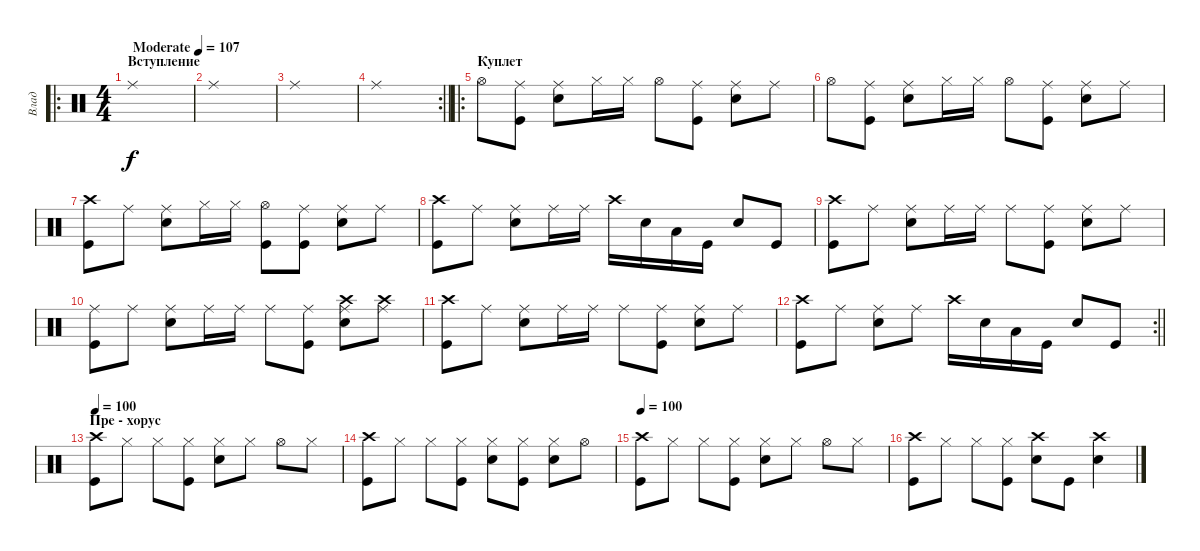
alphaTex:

\track ("Влад" "Влад") {instrument percussion}
\staff {score}
\articulation defaults
\ro
\ts (4 4)
\section ("" "Вступление")
\tempo (107 "Moderate")
\clef neutral
\ks c "Ride (middle)".1{dy f}
|
"Ride (middle)".1 |
"Ride (middle)".1 |
\rc 2
\barLineRight lightlight "Ride (middle)".1
|
\ro
\section ("" "Куплет")
"Hi-Hat (open)".8 ("Ride (middle)" "Kick (hit)").8 ("Ride (middle)" "Snare (hit) 2").8 "Hi-Hat (closed)".16 "Hi-Hat (closed)".16 "Hi-Hat (open)".8 ("Ride (middle)" "Kick (hit)").8 ("Ride (middle)" "Snare (hit) 2").8 "Ride (middle)".8 |
"Hi-Hat (open)".8 ("Ride (middle)" "Kick (hit)").8 ("Ride (middle)" "Snare (hit) 2").8 "Hi-Hat (closed)".16 "Hi-Hat (closed)".16 "Hi-Hat (open)".8 ("Ride (middle)" "Kick (hit)").8 ("Ride (middle)" "Snare (hit) 2").8 "Ride (middle)".8 |
("Crash high (hit)" "Kick (hit)").8 "Ride (middle)".8 ("Ride (middle)" "Snare (hit) 2").8 "Hi-Hat (closed)".16 "Hi-Hat (closed)".16 ("Hi-Hat (open)" "Kick (hit)").8 ("Ride (middle)" "Kick (hit)").8 ("Ride (middle)" "Snare (hit) 2").8 "Ride (middle)".8 |
("Crash high (hit)" "Kick (hit)").8 "Ride (middle)".8 ("Ride (middle)" "Snare (hit) 2").8 "Ride (middle)".16 "Ride (middle)".16 "Crash high (hit)".16 "Snare (hit) 2".16 "Low Tom (hit)".16 "Kick (hit)".16 "Snare (hit) 2".8 "Kick (hit)".8 |
("Crash high (hit)" "Kick (hit)").8 "Ride (middle)".8 ("Ride (middle)" "Snare (hit) 2").8 "Ride (middle)".16 "Ride (middle)".16 "Ride (middle)".8 ("Ride (middle)" "Kick (hit)").8 ("Ride (middle)" "Snare (hit) 2").8 "Ride (middle)".8 |
("Ride (middle)" "Kick (hit)").8 "Ride (middle)".8 ("Ride (middle)" "Snare (hit) 2").8 "Ride (middle)".16 "Ride (middle)".16 "Ride (middle)".8 ("Ride (middle)" "Kick (hit)").8 ("Ride (middle)" "Crash high (hit)" "Snare (hit) 2").8 ("Ride (middle)" "Crash high (hit)").8 |
("Crash high (hit)" "Kick (hit)").8 "Ride (middle)".8 ("Ride (middle)" "Snare (hit) 2").8 "Ride (middle)".16 "Ride (middle)".16 "Ride (middle)".8 ("Ride (middle)" "Kick (hit)").8 ("Ride (middle)" "Snare (hit) 2").8 "Ride (middle)".8 |
\rc 2
\barLineRight lightlight
("Crash high (hit)" "Kick (hit)").8 "Ride (middle)".8 ("Ride (middle)" "Snare (hit) 2").8 "Ride (middle)".8 "Crash high (hit)".16 "Snare (hit) 2".16 "Low Floor Tom (hit)".16 "Kick (hit)".16 "Snare (hit) 2".8 "Kick (hit)".8 |
\section ("" "Пре - хорус")
\tempo 100
("Crash high (hit)" "Kick (hit)").8 "Hi-Hat (closed)".8 "Hi-Hat (closed)".8 ("Hi-Hat (closed)" "Kick (hit)").8 ("Hi-Hat (closed)" "Snare (hit) 2").8 "Hi-Hat (closed)".8 "Hi-Hat (open)".8 "Hi-Hat (closed)".8 |
("Crash high (hit)" "Kick (hit)").8 "Hi-Hat (closed)".8 "Hi-Hat (closed)".8 ("Hi-Hat (closed)" "Kick (hit)").8 ("Hi-Hat (closed)" "Snare (hit) 2").8 ("Hi-Hat (closed)" "Kick (hit)").8 ("Hi-Hat (closed)" "Snare (hit) 2").8 "Hi-Hat (open)".8 |
\tempo 100
("Crash high (hit)" "Kick (hit)").8 "Hi-Hat (closed)".8 "Hi-Hat (closed)".8 ("Hi-Hat (closed)" "Kick (hit)").8 ("Hi-Hat (closed)" "Snare (hit) 2").8 "Hi-Hat (closed)".8 "Hi-Hat (open)".8 "Hi-Hat (closed)".8 |
("Crash high (hit)" "Kick (hit)").8 "Hi-Hat (closed)".8 "Hi-Hat (closed)".8 ("Hi-Hat (closed)" "Kick (hit)").8 ("Crash high (hit)" "Snare (hit) 2").8 "Kick (hit)".8 ("Crash high (hit)" "Snare (hit) 2").4
